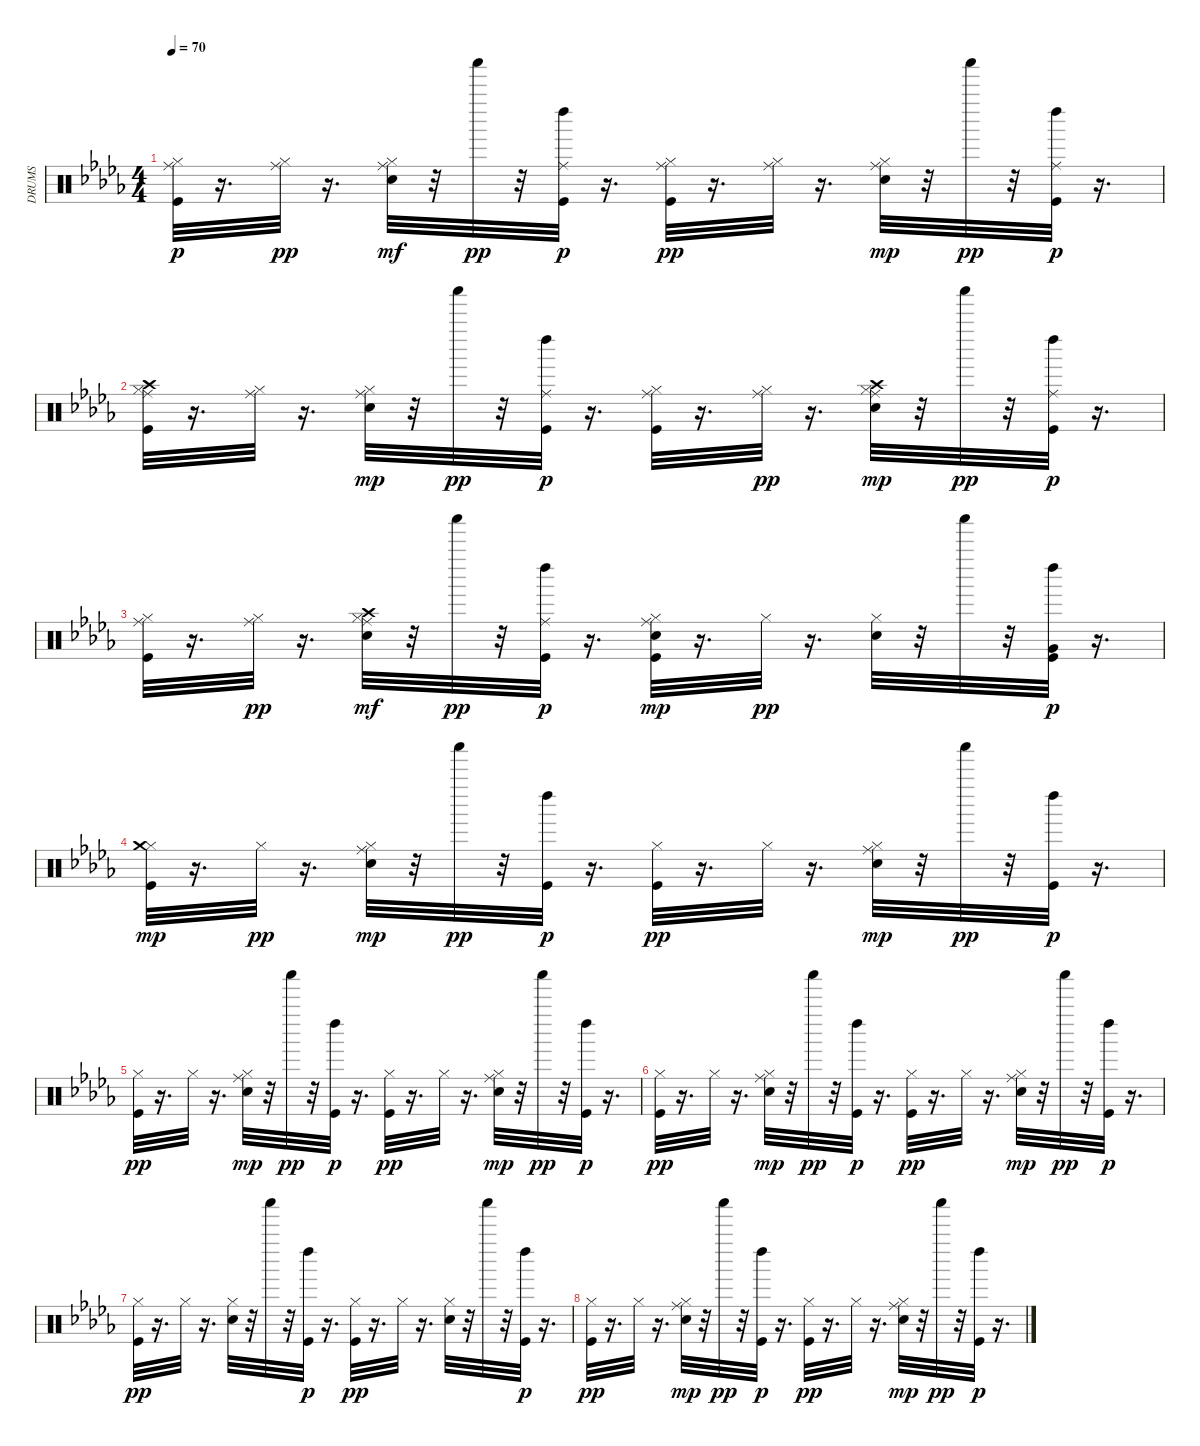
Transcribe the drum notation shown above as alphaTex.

\track ("DRUMS" "DRUMS") {instrument percussion}
\staff {score}
\articulation defaults
\ts (4 4)
\tempo 70
\clef neutral
\ks bbminor
("Kick (hit)" "Hi-Hat (closed)" "Ride (middle)").32{dy p} r.16{d} ("Hi-Hat (closed)" "Ride (middle)").32{dy pp} r.16{d} ("Electric Snare (hit)" "Hi-Hat (closed)" "Ride (middle)").32{dy mf} r.32 "Shaker (hit)".32{dy pp} r.32 ("Kick (hit)" "Ride (middle)" "Left Maraca (hit)").32{dy p} r.16{d} ("Kick (hit)" "Hi-Hat (closed)" "Ride (middle)").32{dy pp} r.16{d} ("Hi-Hat (closed)" "Ride (middle)").32 r.16{d} ("Electric Snare (hit)" "Hi-Hat (closed)" "Ride (middle)").32{dy mp} r.32 "Shaker (hit)".32{dy pp} r.32 ("Kick (hit)" "Ride (middle)" "Left Maraca (hit)").32{dy p} r.16{d} |
("Kick (hit)" "Hi-Hat (closed)" "Crash high (hit)" "Ride (middle)").32 r.16{d} ("Hi-Hat (closed)" "Ride (middle)").32 r.16{d} ("Electric Snare (hit)" "Hi-Hat (closed)" "Ride (middle)").32{dy mp} r.32 "Shaker (hit)".32{dy pp} r.32 ("Kick (hit)" "Ride (middle)" "Left Maraca (hit)").32{dy p} r.16{d} ("Kick (hit)" "Hi-Hat (closed)" "Ride (middle)").32 r.16{d} ("Hi-Hat (closed)" "Ride (middle)").32{dy pp} r.16{d} ("Electric Snare (hit)" "Hi-Hat (closed)" "Crash high (hit)" "Ride (middle)").32{dy mp} r.32 "Shaker (hit)".32{dy pp} r.32 ("Kick (hit)" "Ride (middle)" "Left Maraca (hit)").32{dy p} r.16{d} |
("Kick (hit)" "Hi-Hat (closed)" "Ride (middle)").32 r.16{d} ("Hi-Hat (closed)" "Ride (middle)").32{dy pp} r.16{d} ("Electric Snare (hit)" "Hi-Hat (closed)" "Crash high (hit)" "Ride (middle)").32{dy mf} r.32 "Shaker (hit)".32{dy pp} r.32 ("Kick (hit)" "Ride (middle)" "Left Maraca (hit)").32{dy p} r.16{d} ("Kick (hit)" "Electric Snare (hit)" "Hi-Hat (closed)" "Ride (middle)").32{dy mp} r.16{d} "Hi-Hat (closed)".32{dy pp} r.16{d} ("Electric Snare (hit)" "Hi-Hat (closed)").32 r.32 "Shaker (hit)".32 r.32 ("Kick (hit)" "Very Low Tom (hit)" "Left Maraca (hit)").32{dy p} r.16{d} |
("Kick (hit)" "Hi-Hat (closed)" "Crash medium (hit)").32{dy mp} r.16{d} "Hi-Hat (closed)".32{dy pp} r.16{d} ("Electric Snare (hit)" "Hi-Hat (closed)" "Ride (middle)").32{dy mp} r.32 "Shaker (hit)".32{dy pp} r.32 ("Kick (hit)" "Left Maraca (hit)").32{dy p} r.16{d} ("Kick (hit)" "Hi-Hat (closed)").32{dy pp} r.16{d} "Hi-Hat (closed)".32 r.16{d} ("Electric Snare (hit)" "Hi-Hat (closed)" "Ride (middle)").32{dy mp} r.32 "Shaker (hit)".32{dy pp} r.32 ("Kick (hit)" "Left Maraca (hit)").32{dy p} r.16{d} |
("Kick (hit)" "Hi-Hat (closed)").32{dy pp} r.16{d} "Hi-Hat (closed)".32 r.16{d} ("Electric Snare (hit)" "Hi-Hat (closed)" "Ride (middle)").32{dy mp} r.32 "Shaker (hit)".32{dy pp} r.32 ("Kick (hit)" "Left Maraca (hit)").32{dy p} r.16{d} ("Kick (hit)" "Hi-Hat (closed)").32{dy pp} r.16{d} "Hi-Hat (closed)".32 r.16{d} ("Electric Snare (hit)" "Hi-Hat (closed)" "Ride (middle)").32{dy mp} r.32 "Shaker (hit)".32{dy pp} r.32 ("Kick (hit)" "Left Maraca (hit)").32{dy p} r.16{d} |
("Kick (hit)" "Hi-Hat (closed)").32{dy pp} r.16{d} "Hi-Hat (closed)".32 r.16{d} ("Electric Snare (hit)" "Hi-Hat (closed)" "Ride (middle)").32{dy mp} r.32 "Shaker (hit)".32{dy pp} r.32 ("Kick (hit)" "Left Maraca (hit)").32{dy p} r.16{d} ("Kick (hit)" "Hi-Hat (closed)").32{dy pp} r.16{d} "Hi-Hat (closed)".32 r.16{d} ("Electric Snare (hit)" "Hi-Hat (closed)" "Ride (middle)").32{dy mp} r.32 "Shaker (hit)".32{dy pp} r.32 ("Kick (hit)" "Left Maraca (hit)").32{dy p} r.16{d} |
("Kick (hit)" "Hi-Hat (closed)").32{dy pp} r.16{d} "Hi-Hat (closed)".32 r.16{d} ("Electric Snare (hit)" "Hi-Hat (closed)").32 r.32 "Shaker (hit)".32 r.32 ("Kick (hit)" "Left Maraca (hit)").32{dy p} r.16{d} ("Kick (hit)" "Hi-Hat (closed)").32{dy pp} r.16{d} "Hi-Hat (closed)".32 r.16{d} ("Electric Snare (hit)" "Hi-Hat (closed)").32 r.32 "Shaker (hit)".32 r.32 ("Kick (hit)" "Left Maraca (hit)").32{dy p} r.16{d} |
("Kick (hit)" "Hi-Hat (closed)").32{dy pp} r.16{d} "Hi-Hat (closed)".32 r.16{d} ("Electric Snare (hit)" "Hi-Hat (closed)" "Ride (middle)").32{dy mp} r.32 "Shaker (hit)".32{dy pp} r.32 ("Kick (hit)" "Left Maraca (hit)").32{dy p} r.16{d} ("Kick (hit)" "Hi-Hat (closed)").32{dy pp} r.16{d} "Hi-Hat (closed)".32 r.16{d} ("Electric Snare (hit)" "Hi-Hat (closed)" "Ride (middle)").32{dy mp} r.32 "Shaker (hit)".32{dy pp} r.32 ("Kick (hit)" "Left Maraca (hit)").32{dy p} r.16{d}
